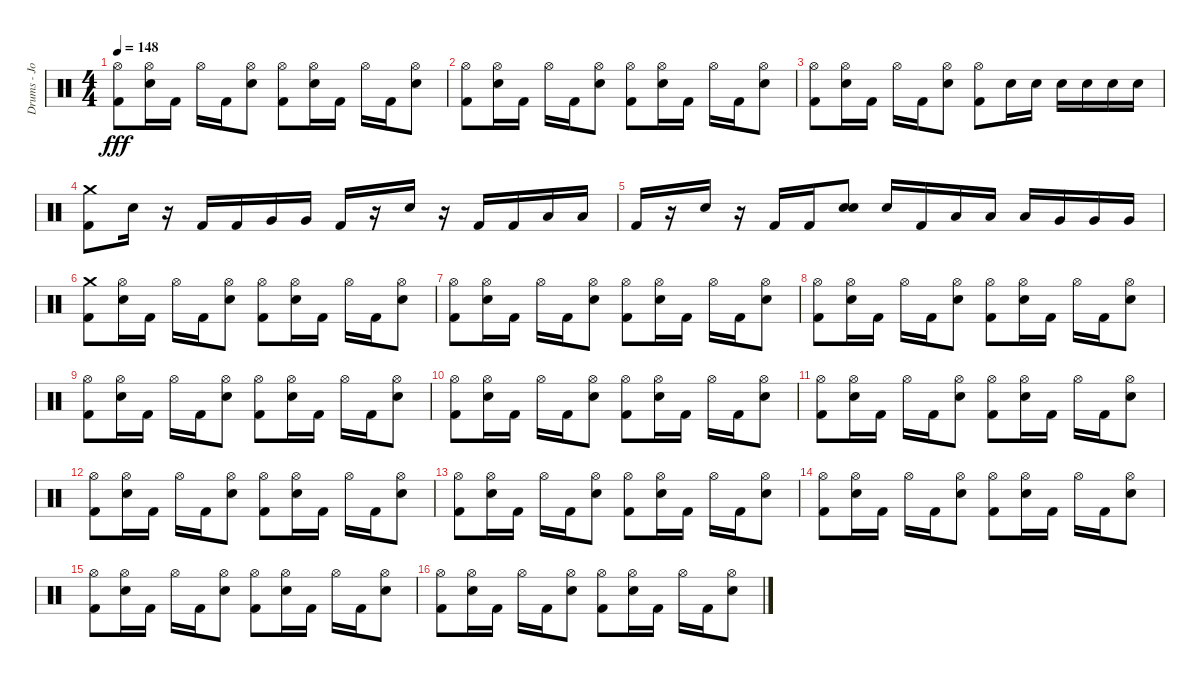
\track ("Drums - Jordan" "Drums - Jo") {instrument percussion}
\staff {score}
\articulation defaults
\ts (4 4)
\tempo 148
\clef neutral
\ks c
("Hi-Hat (open)" "Kick (hit) 2").8{dy fff} ("Hi-Hat (open)" "Electric Snare (hit)").16 "Kick (hit) 2".16 "Hi-Hat (open)".16 "Kick (hit) 2".16 ("Hi-Hat (open)" "Electric Snare (hit)").8 ("Hi-Hat (open)" "Kick (hit) 2").8 ("Hi-Hat (open)" "Electric Snare (hit)").16 "Kick (hit) 2".16 "Hi-Hat (open)".16 "Kick (hit) 2".16 ("Hi-Hat (open)" "Electric Snare (hit)").8 |
("Hi-Hat (open)" "Kick (hit) 2").8 ("Hi-Hat (open)" "Electric Snare (hit)").16 "Kick (hit) 2".16 "Hi-Hat (open)".16 "Kick (hit) 2".16 ("Hi-Hat (open)" "Electric Snare (hit)").8 ("Hi-Hat (open)" "Kick (hit) 2").8 ("Hi-Hat (open)" "Electric Snare (hit)").16 "Kick (hit) 2".16 "Hi-Hat (open)".16 "Kick (hit) 2".16 ("Hi-Hat (open)" "Electric Snare (hit)").8 |
("Hi-Hat (open)" "Kick (hit) 2").8 ("Hi-Hat (open)" "Electric Snare (hit)").16 "Kick (hit) 2".16 "Hi-Hat (open)".16 "Kick (hit) 2".16 ("Hi-Hat (open)" "Electric Snare (hit)").8 ("Kick (hit) 2" "Hi-Hat (open)").8 "Electric Snare (hit)".16 "Electric Snare (hit)".16 "Electric Snare (hit)".16 "Electric Snare (hit)".16 "Electric Snare (hit)".16 "Electric Snare (hit)".16 |
("Kick (hit) 2" "Crash medium (hit)").8 "Electric Snare (hit)".16 r.16 "Kick (hit) 2".16 "Kick (hit) 2".16 "Very Low Tom (hit)".16 "Very Low Tom (hit)".16 "Kick (hit) 2".16 r.16 "Electric Snare (hit)".16 r.16 "Kick (hit) 2".16 "Kick (hit) 2".16 "Low Tom (hit)".16 "Low Tom (hit)".16 |
"Kick (hit) 2".16 r.16 "Electric Snare (hit)".16 r.16 "Kick (hit) 2".16 "Kick (hit) 2".16 ("Electric Snare (hit)" "Electric Snare (hit)").8 "Electric Snare (hit)".16 "Kick (hit) 2".16 "Low Tom (hit)".16 "Low Tom (hit)".16 "Low Tom (hit)".16 "Very Low Tom (hit)".16 "Very Low Tom (hit)".16 "Very Low Tom (hit)".16 |
("Kick (hit) 2" "Crash medium (hit)").8 ("Hi-Hat (open)" "Electric Snare (hit)").16 "Kick (hit) 2".16 "Hi-Hat (open)".16 "Kick (hit) 2".16 ("Hi-Hat (open)" "Electric Snare (hit)").8 ("Hi-Hat (open)" "Kick (hit) 2").8 ("Hi-Hat (open)" "Electric Snare (hit)").16 "Kick (hit) 2".16 "Hi-Hat (open)".16 "Kick (hit) 2".16 ("Hi-Hat (open)" "Electric Snare (hit)").8 |
("Hi-Hat (open)" "Kick (hit) 2").8 ("Hi-Hat (open)" "Electric Snare (hit)").16 "Kick (hit) 2".16 "Hi-Hat (open)".16 "Kick (hit) 2".16 ("Hi-Hat (open)" "Electric Snare (hit)").8 ("Hi-Hat (open)" "Kick (hit) 2").8 ("Hi-Hat (open)" "Electric Snare (hit)").16 "Kick (hit) 2".16 "Hi-Hat (open)".16 "Kick (hit) 2".16 ("Hi-Hat (open)" "Electric Snare (hit)").8 |
("Hi-Hat (open)" "Kick (hit) 2").8 ("Hi-Hat (open)" "Electric Snare (hit)").16 "Kick (hit) 2".16 "Hi-Hat (open)".16 "Kick (hit) 2".16 ("Hi-Hat (open)" "Electric Snare (hit)").8 ("Hi-Hat (open)" "Kick (hit) 2").8 ("Hi-Hat (open)" "Electric Snare (hit)").16 "Kick (hit) 2".16 "Hi-Hat (open)".16 "Kick (hit) 2".16 ("Hi-Hat (open)" "Electric Snare (hit)").8 |
("Hi-Hat (open)" "Kick (hit) 2").8 ("Hi-Hat (open)" "Electric Snare (hit)").16 "Kick (hit) 2".16 "Hi-Hat (open)".16 "Kick (hit) 2".16 ("Hi-Hat (open)" "Electric Snare (hit)").8 ("Hi-Hat (open)" "Kick (hit) 2").8 ("Hi-Hat (open)" "Electric Snare (hit)").16 "Kick (hit) 2".16 "Hi-Hat (open)".16 "Kick (hit) 2".16 ("Hi-Hat (open)" "Electric Snare (hit)").8 |
("Hi-Hat (open)" "Kick (hit) 2").8 ("Hi-Hat (open)" "Electric Snare (hit)").16 "Kick (hit) 2".16 "Hi-Hat (open)".16 "Kick (hit) 2".16 ("Hi-Hat (open)" "Electric Snare (hit)").8 ("Hi-Hat (open)" "Kick (hit) 2").8 ("Hi-Hat (open)" "Electric Snare (hit)").16 "Kick (hit) 2".16 "Hi-Hat (open)".16 "Kick (hit) 2".16 ("Hi-Hat (open)" "Electric Snare (hit)").8 |
("Hi-Hat (open)" "Kick (hit) 2").8 ("Hi-Hat (open)" "Electric Snare (hit)").16 "Kick (hit) 2".16 "Hi-Hat (open)".16 "Kick (hit) 2".16 ("Hi-Hat (open)" "Electric Snare (hit)").8 ("Hi-Hat (open)" "Kick (hit) 2").8 ("Hi-Hat (open)" "Electric Snare (hit)").16 "Kick (hit) 2".16 "Hi-Hat (open)".16 "Kick (hit) 2".16 ("Hi-Hat (open)" "Electric Snare (hit)").8 |
("Hi-Hat (open)" "Kick (hit) 2").8 ("Hi-Hat (open)" "Electric Snare (hit)").16 "Kick (hit) 2".16 "Hi-Hat (open)".16 "Kick (hit) 2".16 ("Hi-Hat (open)" "Electric Snare (hit)").8 ("Hi-Hat (open)" "Kick (hit) 2").8 ("Hi-Hat (open)" "Electric Snare (hit)").16 "Kick (hit) 2".16 "Hi-Hat (open)".16 "Kick (hit) 2".16 ("Hi-Hat (open)" "Electric Snare (hit)").8 |
("Hi-Hat (open)" "Kick (hit) 2").8 ("Hi-Hat (open)" "Electric Snare (hit)").16 "Kick (hit) 2".16 "Hi-Hat (open)".16 "Kick (hit) 2".16 ("Hi-Hat (open)" "Electric Snare (hit)").8 ("Hi-Hat (open)" "Kick (hit) 2").8 ("Hi-Hat (open)" "Electric Snare (hit)").16 "Kick (hit) 2".16 "Hi-Hat (open)".16 "Kick (hit) 2".16 ("Hi-Hat (open)" "Electric Snare (hit)").8 |
("Hi-Hat (open)" "Kick (hit) 2").8 ("Hi-Hat (open)" "Electric Snare (hit)").16 "Kick (hit) 2".16 "Hi-Hat (open)".16 "Kick (hit) 2".16 ("Hi-Hat (open)" "Electric Snare (hit)").8 ("Hi-Hat (open)" "Kick (hit) 2").8 ("Hi-Hat (open)" "Electric Snare (hit)").16 "Kick (hit) 2".16 "Hi-Hat (open)".16 "Kick (hit) 2".16 ("Hi-Hat (open)" "Electric Snare (hit)").8 |
("Hi-Hat (open)" "Kick (hit) 2").8 ("Hi-Hat (open)" "Electric Snare (hit)").16 "Kick (hit) 2".16 "Hi-Hat (open)".16 "Kick (hit) 2".16 ("Hi-Hat (open)" "Electric Snare (hit)").8 ("Hi-Hat (open)" "Kick (hit) 2").8 ("Hi-Hat (open)" "Electric Snare (hit)").16 "Kick (hit) 2".16 "Hi-Hat (open)".16 "Kick (hit) 2".16 ("Hi-Hat (open)" "Electric Snare (hit)").8 |
("Hi-Hat (open)" "Kick (hit) 2").8 ("Hi-Hat (open)" "Electric Snare (hit)").16 "Kick (hit) 2".16 "Hi-Hat (open)".16 "Kick (hit) 2".16 ("Hi-Hat (open)" "Electric Snare (hit)").8 ("Hi-Hat (open)" "Kick (hit) 2").8 ("Hi-Hat (open)" "Electric Snare (hit)").16 "Kick (hit) 2".16 "Hi-Hat (open)".16 "Kick (hit) 2".16 ("Hi-Hat (open)" "Electric Snare (hit)").8
